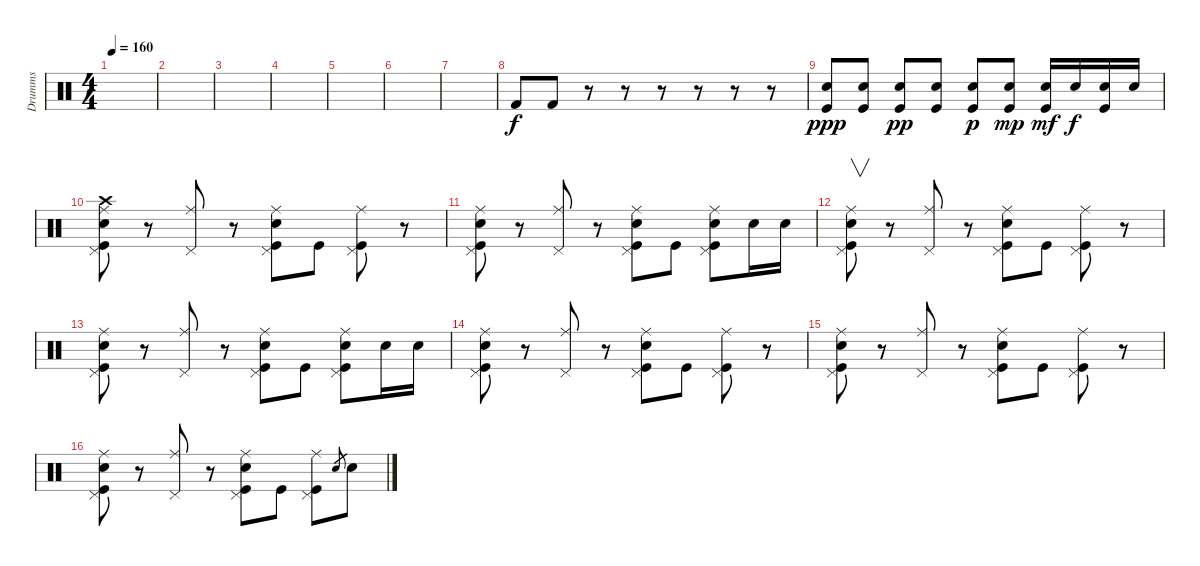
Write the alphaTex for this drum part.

\track ("Drumms" "Drumms") {instrument percussion}
\staff {score}
\articulation defaults
\ts (4 4)
\tempo 160
\clef neutral
\ks c
|
|
|
|
|
|
|
"Kick (hit) 2".8 "Kick (hit) 2".8 r.8 r.8 r.8 r.8 r.8 r.8 |
("Snare (hit) 2" "Kick (hit)").8{dy ppp} ("Snare (hit) 2" "Kick (hit)").8 ("Snare (hit) 2" "Kick (hit)").8{dy pp} ("Snare (hit) 2" "Kick (hit)").8 ("Snare (hit) 2" "Kick (hit)").8{dy p} ("Snare (hit) 2" "Kick (hit)").8{dy mp} ("Snare (hit) 2" "Kick (hit)").16{dy mf} "Snare (hit) 2".16{dy f} ("Snare (hit) 2" "Kick (hit)").16 "Snare (hit) 2".16 |
("Pedal Hi-Hat (hit)" "Ride (middle)" "Crash high (hit)" "Snare (hit) 2" "Kick (hit)").8 r.8 ("Pedal Hi-Hat (hit)" "Ride (middle)").8 r.8 ("Pedal Hi-Hat (hit)" "Ride (middle)" "Snare (hit) 2" "Kick (hit)").8 "Kick (hit)".8 ("Pedal Hi-Hat (hit)" "Ride (middle)" "Kick (hit)").8 r.8 |
("Pedal Hi-Hat (hit)" "Ride (middle)" "Snare (hit) 2" "Kick (hit)").8 r.8 ("Pedal Hi-Hat (hit)" "Ride (middle)").8 r.8 ("Pedal Hi-Hat (hit)" "Ride (middle)" "Snare (hit) 2" "Kick (hit)").8 "Kick (hit)".8 ("Pedal Hi-Hat (hit)" "Ride (middle)" "Snare (hit) 2" "Kick (hit)").8 "Snare (hit) 2".16 "Snare (hit) 2".16 |
("Pedal Hi-Hat (hit)" "Ride (middle)" "Snare (hit) 2" "Kick (hit)").8{v} r.8 ("Pedal Hi-Hat (hit)" "Ride (middle)").8 r.8 ("Pedal Hi-Hat (hit)" "Ride (middle)" "Snare (hit) 2" "Kick (hit)").8 "Kick (hit)".8 ("Pedal Hi-Hat (hit)" "Ride (middle)" "Kick (hit)").8 r.8 |
("Pedal Hi-Hat (hit)" "Ride (middle)" "Snare (hit) 2" "Kick (hit)").8 r.8 ("Pedal Hi-Hat (hit)" "Ride (middle)").8 r.8 ("Pedal Hi-Hat (hit)" "Ride (middle)" "Snare (hit) 2" "Kick (hit)").8 "Kick (hit)".8 ("Pedal Hi-Hat (hit)" "Ride (middle)" "Snare (hit) 2" "Kick (hit)").8 "Snare (hit) 2".16 "Snare (hit) 2".16 |
("Pedal Hi-Hat (hit)" "Ride (middle)" "Snare (hit) 2" "Kick (hit)").8 r.8 ("Pedal Hi-Hat (hit)" "Ride (middle)").8 r.8 ("Pedal Hi-Hat (hit)" "Ride (middle)" "Snare (hit) 2" "Kick (hit)").8 "Kick (hit)".8 ("Pedal Hi-Hat (hit)" "Ride (middle)" "Kick (hit)").8 r.8 |
("Pedal Hi-Hat (hit)" "Ride (middle)" "Snare (hit) 2" "Kick (hit)").8 r.8 ("Pedal Hi-Hat (hit)" "Ride (middle)").8 r.8 ("Pedal Hi-Hat (hit)" "Ride (middle)" "Snare (hit) 2" "Kick (hit)").8 "Kick (hit)".8 ("Pedal Hi-Hat (hit)" "Ride (middle)" "Kick (hit)").8 r.8 |
("Pedal Hi-Hat (hit)" "Ride (middle)" "Snare (hit) 2" "Kick (hit)").8 r.8 ("Pedal Hi-Hat (hit)" "Ride (middle)").8 r.8 ("Pedal Hi-Hat (hit)" "Ride (middle)" "Snare (hit) 2" "Kick (hit)").8 "Kick (hit)".8 ("Pedal Hi-Hat (hit)" "Ride (middle)" "Kick (hit)").8 "Snare (hit) 2".8{gr} "Snare (hit) 2".8
